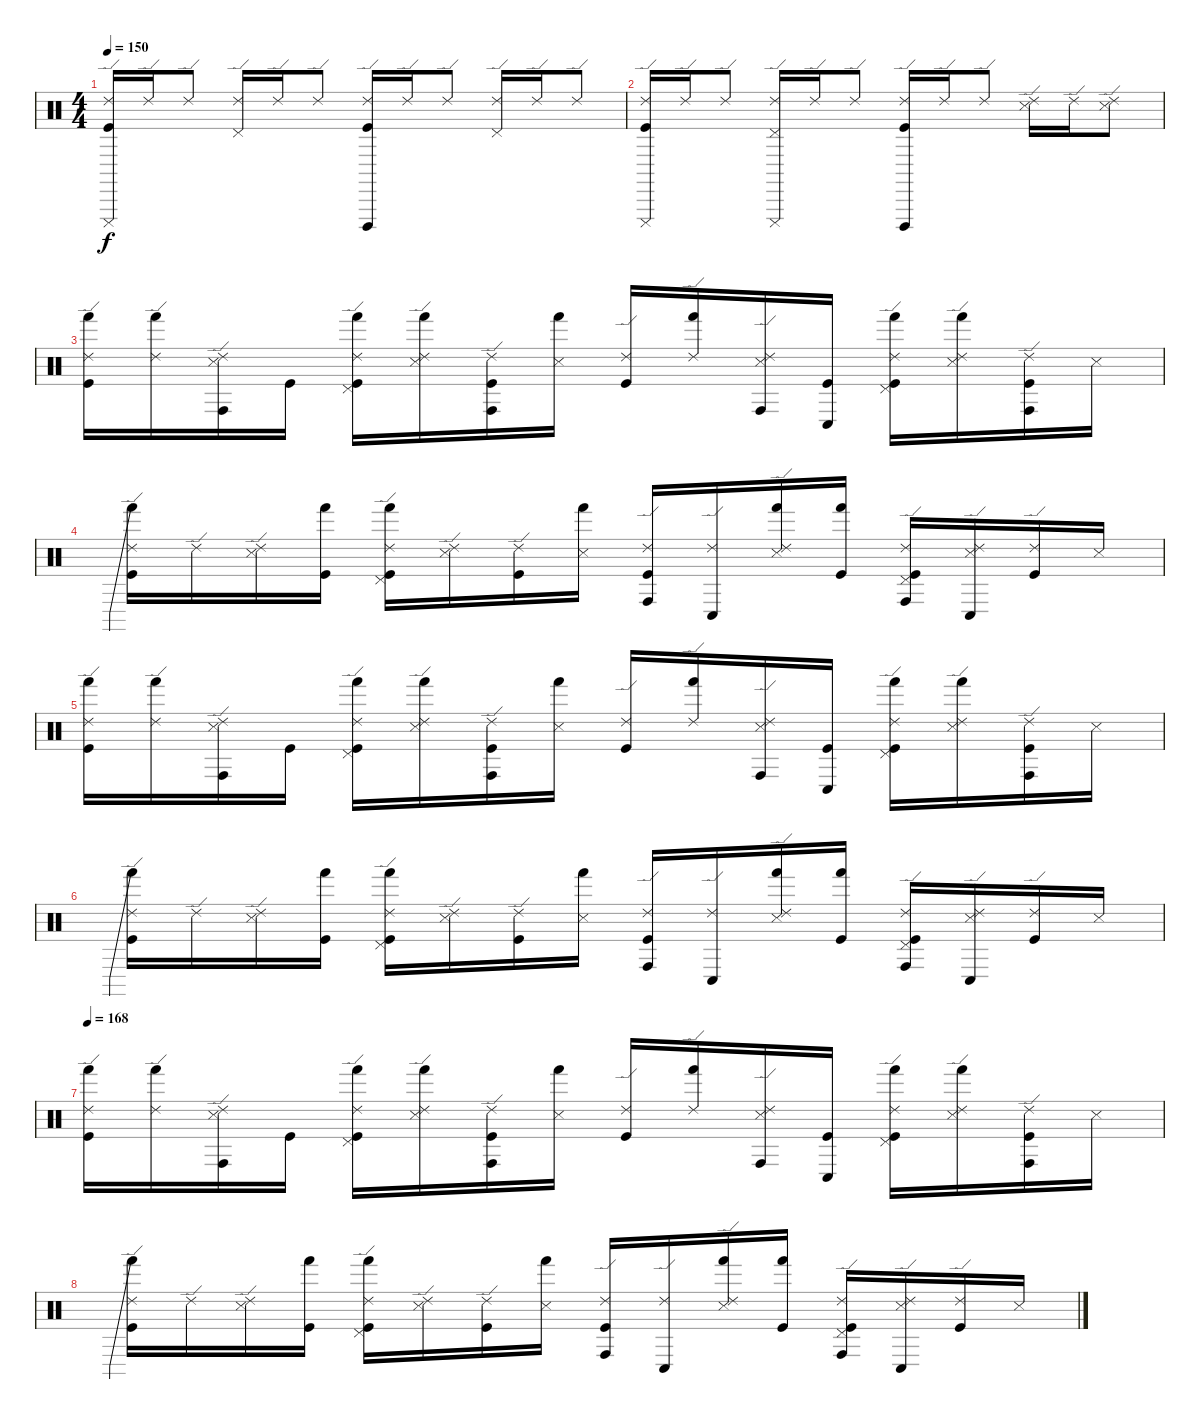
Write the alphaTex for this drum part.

\track "" {instrument percussion}
\staff {score}
\articulation defaults
\ts (4 4)
\tempo 150
\clef neutral
\ks c
("Ride (edge) 2" "Cuica (mute)" "Kick (hit)").16{dy f} "Ride (edge) 2".16 "Ride (edge) 2".8 ("Ride (edge) 2" "Pedal Hi-Hat (hit)").16 "Ride (edge) 2".16 "Ride (edge) 2".8 ("Ride (edge) 2" "Cuica (open)" "Kick (hit)").16 "Ride (edge) 2".16 "Ride (edge) 2".8 ("Ride (edge) 2" "Pedal Hi-Hat (hit)").16 "Ride (edge) 2".16 "Ride (edge) 2".8 |
("Ride (edge) 2" "Cuica (mute)" "Kick (hit)").16 "Ride (edge) 2".16 "Ride (edge) 2".8 ("Ride (edge) 2" "Pedal Hi-Hat (hit)" "Cuica (mute)").16 "Ride (edge) 2".16 "Ride (edge) 2".8 ("Ride (edge) 2" "Cuica (open)" "Kick (hit)").16 "Ride (edge) 2".16 "Ride (edge) 2".8 ("Ride (edge) 2" "Snare (side stick) 3").16 "Ride (edge) 2".16 ("Ride (edge) 2" "Snare (side stick) 3").8 |
("Ride (edge) 2" "Hand (hit)" "Kick (hit)").16 ("Ride (edge) 2" "Hand (hit)").16 ("Ride (edge) 2" "Snare (side stick) 3" "Conga high (hit)").16 "Kick (hit)".16 ("Ride (edge) 2" "Pedal Hi-Hat (hit)" "Hand (hit)" "Kick (hit)").16 ("Ride (edge) 2" "Snare (side stick) 3" "Hand (hit)").16 ("Ride (edge) 2" "Conga high (hit)" "Kick (hit)").16 ("Snare (side stick) 3" "Hand (hit)").16 ("Ride (edge) 2" "Kick (hit)").16 ("Ride (edge) 2" "Hand (hit)").16 ("Ride (edge) 2" "Snare (side stick) 3" "Conga high (hit)").16 ("Conga low (hit)" "Kick (hit)").16 ("Ride (edge) 2" "Pedal Hi-Hat (hit)" "Hand (hit)" "Kick (hit)").16 ("Ride (edge) 2" "Snare (side stick) 3" "Hand (hit)").16 ("Ride (edge) 2" "Conga high (hit)" "Kick (hit)").16 "Snare (side stick) 3".16 |
("Ride (edge) 2" "Hand (hit)"{be (prebend 0 12 60 12)} "Kick (hit)").16 "Ride (edge) 2".16 ("Ride (edge) 2" "Snare (side stick) 3").16 ("Hand (hit)" "Kick (hit)").16 ("Ride (edge) 2" "Pedal Hi-Hat (hit)" "Hand (hit)" "Kick (hit)").16 ("Ride (edge) 2" "Snare (side stick) 3").16 ("Ride (edge) 2" "Kick (hit)").16 ("Snare (side stick) 3" "Hand (hit)").16 ("Ride (edge) 2" "Conga high (hit)" "Kick (hit)").16 ("Ride (edge) 2" "Conga low (hit)").16 ("Ride (edge) 2" "Snare (side stick) 3" "Hand (hit)").16 ("Hand (hit)" "Kick (hit)").16 ("Ride (edge) 2" "Pedal Hi-Hat (hit)" "Conga high (hit)" "Kick (hit)").16 ("Ride (edge) 2" "Snare (side stick) 3" "Conga low (hit)").16 ("Ride (edge) 2" "Kick (hit)").16 "Snare (side stick) 3".16 |
("Ride (edge) 2" "Hand (hit)" "Kick (hit)").16 ("Ride (edge) 2" "Hand (hit)").16 ("Ride (edge) 2" "Snare (side stick) 3" "Conga high (hit)").16 "Kick (hit)".16 ("Ride (edge) 2" "Pedal Hi-Hat (hit)" "Hand (hit)" "Kick (hit)").16 ("Ride (edge) 2" "Snare (side stick) 3" "Hand (hit)").16 ("Ride (edge) 2" "Conga high (hit)" "Kick (hit)").16 ("Snare (side stick) 3" "Hand (hit)").16 ("Ride (edge) 2" "Kick (hit)").16 ("Ride (edge) 2" "Hand (hit)").16 ("Ride (edge) 2" "Snare (side stick) 3" "Conga high (hit)").16 ("Conga low (hit)" "Kick (hit)").16 ("Ride (edge) 2" "Pedal Hi-Hat (hit)" "Hand (hit)" "Kick (hit)").16 ("Ride (edge) 2" "Snare (side stick) 3" "Hand (hit)").16 ("Ride (edge) 2" "Conga high (hit)" "Kick (hit)").16 "Snare (side stick) 3".16 |
("Ride (edge) 2" "Hand (hit)"{be (prebend 0 12 60 12)} "Kick (hit)").16 "Ride (edge) 2".16 ("Ride (edge) 2" "Snare (side stick) 3").16 ("Hand (hit)" "Kick (hit)").16 ("Ride (edge) 2" "Pedal Hi-Hat (hit)" "Hand (hit)" "Kick (hit)").16 ("Ride (edge) 2" "Snare (side stick) 3").16 ("Ride (edge) 2" "Kick (hit)").16 ("Snare (side stick) 3" "Hand (hit)").16 ("Ride (edge) 2" "Conga high (hit)" "Kick (hit)").16 ("Ride (edge) 2" "Conga low (hit)").16 ("Ride (edge) 2" "Snare (side stick) 3" "Hand (hit)").16 ("Hand (hit)" "Kick (hit)").16 ("Ride (edge) 2" "Pedal Hi-Hat (hit)" "Conga high (hit)" "Kick (hit)").16 ("Ride (edge) 2" "Snare (side stick) 3" "Conga low (hit)").16 ("Ride (edge) 2" "Kick (hit)").16 "Snare (side stick) 3".16 |
\tempo 168
("Ride (edge) 2" "Hand (hit)" "Kick (hit)").16 ("Ride (edge) 2" "Hand (hit)").16 ("Ride (edge) 2" "Snare (side stick) 3" "Conga high (hit)").16 "Kick (hit)".16 ("Ride (edge) 2" "Pedal Hi-Hat (hit)" "Hand (hit)" "Kick (hit)").16 ("Ride (edge) 2" "Snare (side stick) 3" "Hand (hit)").16 ("Ride (edge) 2" "Conga high (hit)" "Kick (hit)").16 ("Snare (side stick) 3" "Hand (hit)").16 ("Ride (edge) 2" "Kick (hit)").16 ("Ride (edge) 2" "Hand (hit)").16 ("Ride (edge) 2" "Snare (side stick) 3" "Conga high (hit)").16 ("Conga low (hit)" "Kick (hit)").16 ("Ride (edge) 2" "Pedal Hi-Hat (hit)" "Hand (hit)" "Kick (hit)").16 ("Ride (edge) 2" "Snare (side stick) 3" "Hand (hit)").16 ("Ride (edge) 2" "Conga high (hit)" "Kick (hit)").16 "Snare (side stick) 3".16 |
("Ride (edge) 2" "Hand (hit)"{be (prebend 0 12 60 12)} "Kick (hit)").16 "Ride (edge) 2".16 ("Ride (edge) 2" "Snare (side stick) 3").16 ("Hand (hit)" "Kick (hit)").16 ("Ride (edge) 2" "Pedal Hi-Hat (hit)" "Hand (hit)" "Kick (hit)").16 ("Ride (edge) 2" "Snare (side stick) 3").16 ("Ride (edge) 2" "Kick (hit)").16 ("Snare (side stick) 3" "Hand (hit)").16 ("Ride (edge) 2" "Conga high (hit)" "Kick (hit)").16 ("Ride (edge) 2" "Conga low (hit)").16 ("Ride (edge) 2" "Snare (side stick) 3" "Hand (hit)").16 ("Hand (hit)" "Kick (hit)").16 ("Ride (edge) 2" "Pedal Hi-Hat (hit)" "Conga high (hit)" "Kick (hit)").16 ("Ride (edge) 2" "Snare (side stick) 3" "Conga low (hit)").16 ("Ride (edge) 2" "Kick (hit)").16 "Snare (side stick) 3".16
